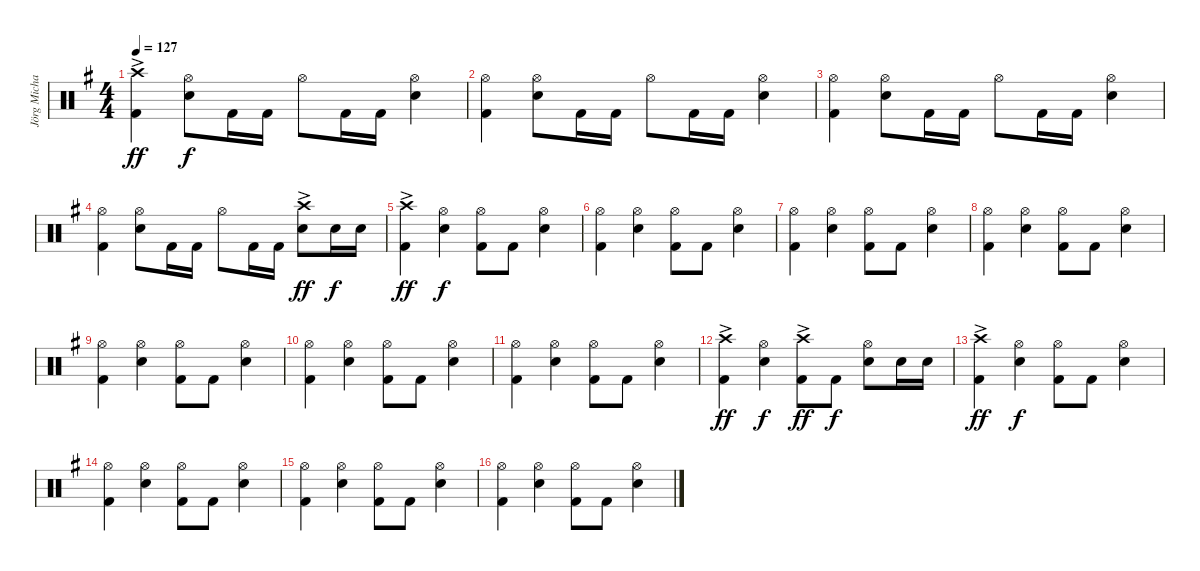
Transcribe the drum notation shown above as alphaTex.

\track ("Jörg Michael" "Jörg Micha") {instrument percussion}
\staff {score}
\articulation defaults
\ts (4 4)
\tempo 127
\clef neutral
\ks g
("Crash high (hit)"{ac} "Kick (hit) 2"{ac}).4{dy ff} ("Hi-Hat (open)" "Electric Snare (hit)").8{dy f} "Kick (hit) 2".16 "Kick (hit) 2".16 "Hi-Hat (open)".8 "Kick (hit) 2".16 "Kick (hit) 2".16 ("Hi-Hat (open)" "Electric Snare (hit)").4 |
("Hi-Hat (open)" "Kick (hit) 2").4 ("Hi-Hat (open)" "Electric Snare (hit)").8 "Kick (hit) 2".16 "Kick (hit) 2".16 "Hi-Hat (open)".8 "Kick (hit) 2".16 "Kick (hit) 2".16 ("Hi-Hat (open)" "Electric Snare (hit)").4 |
("Hi-Hat (open)" "Kick (hit) 2").4 ("Hi-Hat (open)" "Electric Snare (hit)").8 "Kick (hit) 2".16 "Kick (hit) 2".16 "Hi-Hat (open)".8 "Kick (hit) 2".16 "Kick (hit) 2".16 ("Hi-Hat (open)" "Electric Snare (hit)").4 |
("Hi-Hat (open)" "Kick (hit) 2").4 ("Hi-Hat (open)" "Electric Snare (hit)").8 "Kick (hit) 2".16 "Kick (hit) 2".16 "Hi-Hat (open)".8 "Kick (hit) 2".16 "Kick (hit) 2".16 ("Crash high (hit)"{ac} "Electric Snare (hit)"{ac}).8{dy ff} "Electric Snare (hit)".16{dy f} "Electric Snare (hit)".16 |
("Crash high (hit)"{ac} "Kick (hit) 2"{ac}).4{dy ff} ("Hi-Hat (open)" "Electric Snare (hit)").4{dy f} ("Hi-Hat (open)" "Kick (hit) 2").8 "Kick (hit) 2".8 ("Hi-Hat (open)" "Electric Snare (hit)").4 |
("Hi-Hat (open)" "Kick (hit) 2").4 ("Hi-Hat (open)" "Electric Snare (hit)").4 ("Hi-Hat (open)" "Kick (hit) 2").8 "Kick (hit) 2".8 ("Hi-Hat (open)" "Electric Snare (hit)").4 |
("Hi-Hat (open)" "Kick (hit) 2").4 ("Hi-Hat (open)" "Electric Snare (hit)").4 ("Hi-Hat (open)" "Kick (hit) 2").8 "Kick (hit) 2".8 ("Hi-Hat (open)" "Electric Snare (hit)").4 |
("Hi-Hat (open)" "Kick (hit) 2").4 ("Hi-Hat (open)" "Electric Snare (hit)").4 ("Hi-Hat (open)" "Kick (hit) 2").8 "Kick (hit) 2".8 ("Hi-Hat (open)" "Electric Snare (hit)").4 |
("Hi-Hat (open)" "Kick (hit) 2").4 ("Hi-Hat (open)" "Electric Snare (hit)").4 ("Hi-Hat (open)" "Kick (hit) 2").8 "Kick (hit) 2".8 ("Hi-Hat (open)" "Electric Snare (hit)").4 |
("Hi-Hat (open)" "Kick (hit) 2").4 ("Hi-Hat (open)" "Electric Snare (hit)").4 ("Hi-Hat (open)" "Kick (hit) 2").8 "Kick (hit) 2".8 ("Hi-Hat (open)" "Electric Snare (hit)").4 |
("Hi-Hat (open)" "Kick (hit) 2").4 ("Hi-Hat (open)" "Electric Snare (hit)").4 ("Hi-Hat (open)" "Kick (hit) 2").8 "Kick (hit) 2".8 ("Hi-Hat (open)" "Electric Snare (hit)").4 |
("Crash high (hit)"{ac} "Kick (hit) 2").4{dy ff} ("Hi-Hat (open)" "Electric Snare (hit)").4{dy f} ("Crash high (hit)"{ac} "Kick (hit) 2").8{dy ff} "Kick (hit) 2".8{dy f} ("Hi-Hat (open)" "Electric Snare (hit)").8 "Electric Snare (hit)".16 "Electric Snare (hit)".16 |
("Crash high (hit)"{ac} "Kick (hit) 2"{ac}).4{dy ff} ("Hi-Hat (open)" "Electric Snare (hit)").4{dy f} ("Hi-Hat (open)" "Kick (hit) 2").8 "Kick (hit) 2".8 ("Hi-Hat (open)" "Electric Snare (hit)").4 |
("Hi-Hat (open)" "Kick (hit) 2").4 ("Hi-Hat (open)" "Electric Snare (hit)").4 ("Hi-Hat (open)" "Kick (hit) 2").8 "Kick (hit) 2".8 ("Hi-Hat (open)" "Electric Snare (hit)").4 |
("Hi-Hat (open)" "Kick (hit) 2").4 ("Hi-Hat (open)" "Electric Snare (hit)").4 ("Hi-Hat (open)" "Kick (hit) 2").8 "Kick (hit) 2".8 ("Hi-Hat (open)" "Electric Snare (hit)").4 |
("Hi-Hat (open)" "Kick (hit) 2").4 ("Hi-Hat (open)" "Electric Snare (hit)").4 ("Hi-Hat (open)" "Kick (hit) 2").8 "Kick (hit) 2".8 ("Hi-Hat (open)" "Electric Snare (hit)").4
